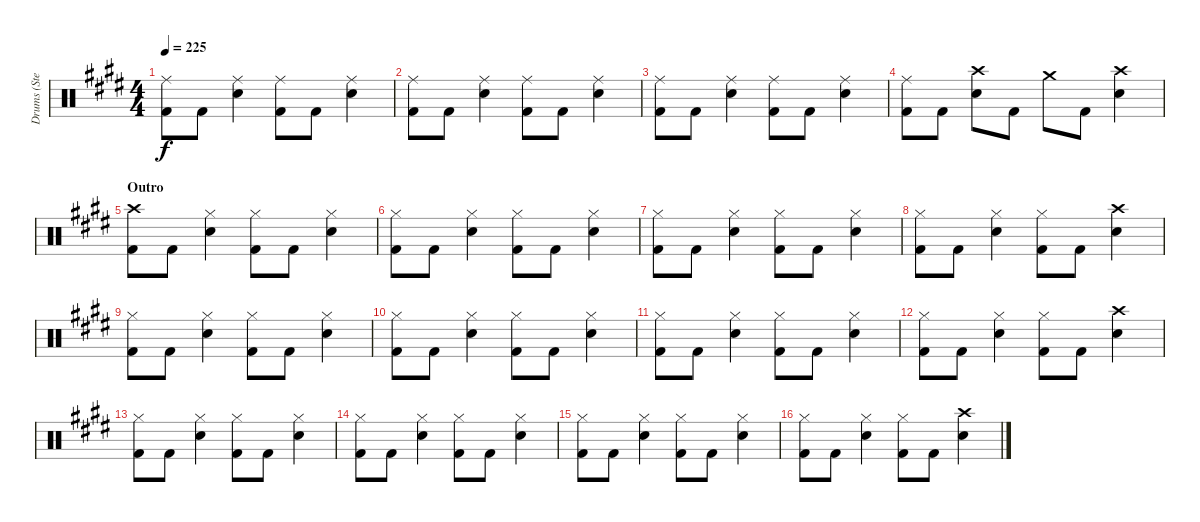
\track ("Drums (Steven)" "Drums (Ste") {instrument percussion}
\staff {score}
\articulation defaults
\ts (4 4)
\tempo 225
\clef neutral
\ks e
("Ride (middle)" "Kick (hit) 2").8{dy f} "Kick (hit) 2".8 ("Ride (middle)" "Snare (hit) 2").4 ("Ride (middle)" "Kick (hit) 2").8 "Kick (hit) 2".8 ("Ride (middle)" "Snare (hit) 2").4 |
("Ride (middle)" "Kick (hit) 2").8 "Kick (hit) 2".8 ("Ride (middle)" "Snare (hit) 2").4 ("Ride (middle)" "Kick (hit) 2").8 "Kick (hit) 2".8 ("Ride (middle)" "Snare (hit) 2").4 |
("Ride (middle)" "Kick (hit) 2").8 "Kick (hit) 2".8 ("Ride (middle)" "Snare (hit) 2").4 ("Ride (middle)" "Kick (hit) 2").8 "Kick (hit) 2".8 ("Ride (middle)" "Snare (hit) 2").4 |
("Ride (middle)" "Kick (hit) 2").8 "Kick (hit) 2".8 ("Crash high (hit)" "Snare (hit) 2").8 "Kick (hit) 2".8 "Crash medium (hit)".8 "Kick (hit) 2".8 ("Crash high (hit)" "Snare (hit) 2").4 |
\section ("" "Outro")
("Crash high (hit)" "Kick (hit) 2").8 "Kick (hit) 2".8 ("Hi-Hat (closed)" "Snare (hit) 2").4 ("Hi-Hat (closed)" "Kick (hit) 2").8 "Kick (hit) 2".8 ("Hi-Hat (closed)" "Snare (hit) 2").4 |
("Hi-Hat (closed)" "Kick (hit) 2").8 "Kick (hit) 2".8 ("Hi-Hat (closed)" "Snare (hit) 2").4 ("Hi-Hat (closed)" "Kick (hit) 2").8 "Kick (hit) 2".8 ("Hi-Hat (closed)" "Snare (hit) 2").4 |
("Hi-Hat (closed)" "Kick (hit) 2").8 "Kick (hit) 2".8 ("Hi-Hat (closed)" "Snare (hit) 2").4 ("Hi-Hat (closed)" "Kick (hit) 2").8 "Kick (hit) 2".8 ("Hi-Hat (closed)" "Snare (hit) 2").4 |
("Hi-Hat (closed)" "Kick (hit) 2").8 "Kick (hit) 2".8 ("Hi-Hat (closed)" "Snare (hit) 2").4 ("Hi-Hat (closed)" "Kick (hit) 2").8 "Kick (hit) 2".8 ("Crash high (hit)" "Snare (hit) 2").4 |
("Hi-Hat (closed)" "Kick (hit) 2").8 "Kick (hit) 2".8 ("Hi-Hat (closed)" "Snare (hit) 2").4 ("Hi-Hat (closed)" "Kick (hit) 2").8 "Kick (hit) 2".8 ("Hi-Hat (closed)" "Snare (hit) 2").4 |
("Hi-Hat (closed)" "Kick (hit) 2").8 "Kick (hit) 2".8 ("Hi-Hat (closed)" "Snare (hit) 2").4 ("Hi-Hat (closed)" "Kick (hit) 2").8 "Kick (hit) 2".8 ("Hi-Hat (closed)" "Snare (hit) 2").4 |
("Hi-Hat (closed)" "Kick (hit) 2").8 "Kick (hit) 2".8 ("Hi-Hat (closed)" "Snare (hit) 2").4 ("Hi-Hat (closed)" "Kick (hit) 2").8 "Kick (hit) 2".8 ("Hi-Hat (closed)" "Snare (hit) 2").4 |
("Hi-Hat (closed)" "Kick (hit) 2").8 "Kick (hit) 2".8 ("Hi-Hat (closed)" "Snare (hit) 2").4 ("Hi-Hat (closed)" "Kick (hit) 2").8 "Kick (hit) 2".8 ("Crash high (hit)" "Snare (hit) 2").4 |
("Hi-Hat (closed)" "Kick (hit) 2").8 "Kick (hit) 2".8 ("Hi-Hat (closed)" "Snare (hit) 2").4 ("Hi-Hat (closed)" "Kick (hit) 2").8 "Kick (hit) 2".8 ("Hi-Hat (closed)" "Snare (hit) 2").4 |
("Hi-Hat (closed)" "Kick (hit) 2").8 "Kick (hit) 2".8 ("Hi-Hat (closed)" "Snare (hit) 2").4 ("Hi-Hat (closed)" "Kick (hit) 2").8 "Kick (hit) 2".8 ("Hi-Hat (closed)" "Snare (hit) 2").4 |
("Hi-Hat (closed)" "Kick (hit) 2").8 "Kick (hit) 2".8 ("Hi-Hat (closed)" "Snare (hit) 2").4 ("Hi-Hat (closed)" "Kick (hit) 2").8 "Kick (hit) 2".8 ("Hi-Hat (closed)" "Snare (hit) 2").4 |
("Hi-Hat (closed)" "Kick (hit) 2").8 "Kick (hit) 2".8 ("Hi-Hat (closed)" "Snare (hit) 2").4 ("Hi-Hat (closed)" "Kick (hit) 2").8 "Kick (hit) 2".8 ("Crash high (hit)" "Snare (hit) 2").4
